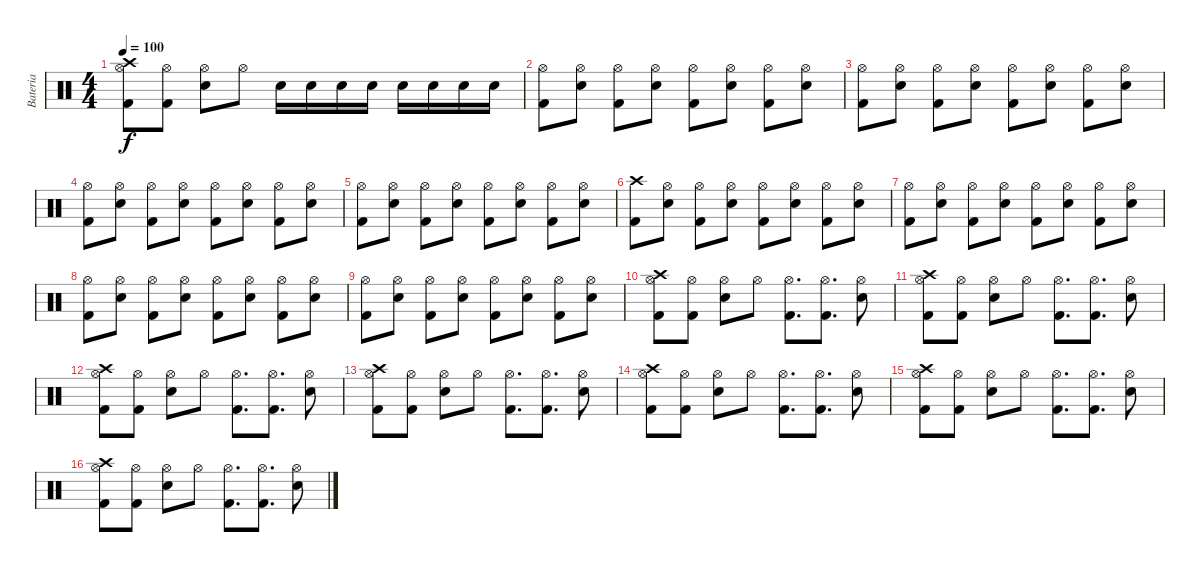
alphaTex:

\track ("Bateria" "Bateria") {instrument percussion}
\staff {score}
\articulation defaults
\ts (4 4)
\tempo 100
\clef neutral
\ks c
("Hi-Hat (open)" "Kick (hit) 2" "Crash high (hit)").8{dy f} ("Hi-Hat (open)" "Kick (hit) 2").8 ("Hi-Hat (open)" "Snare (hit) 2").8 "Hi-Hat (open)".8 "Snare (hit) 2".16 "Snare (hit) 2".16 "Snare (hit) 2".16 "Snare (hit) 2".16 "Snare (hit) 2".16 "Snare (hit) 2".16 "Snare (hit) 2".16 "Snare (hit) 2".16 |
("Hi-Hat (open)" "Kick (hit) 2").8 ("Hi-Hat (open)" "Electric Snare (hit)").8 ("Hi-Hat (open)" "Kick (hit) 2").8 ("Hi-Hat (open)" "Electric Snare (hit)").8 ("Hi-Hat (open)" "Kick (hit) 2").8 ("Hi-Hat (open)" "Electric Snare (hit)").8 ("Hi-Hat (open)" "Kick (hit) 2").8 ("Hi-Hat (open)" "Electric Snare (hit)").8 |
("Hi-Hat (open)" "Kick (hit) 2").8 ("Hi-Hat (open)" "Electric Snare (hit)").8 ("Hi-Hat (open)" "Kick (hit) 2").8 ("Hi-Hat (open)" "Electric Snare (hit)").8 ("Hi-Hat (open)" "Kick (hit) 2").8 ("Hi-Hat (open)" "Electric Snare (hit)").8 ("Hi-Hat (open)" "Kick (hit) 2").8 ("Hi-Hat (open)" "Electric Snare (hit)").8 |
("Hi-Hat (open)" "Kick (hit) 2").8 ("Hi-Hat (open)" "Electric Snare (hit)").8 ("Hi-Hat (open)" "Kick (hit) 2").8 ("Hi-Hat (open)" "Electric Snare (hit)").8 ("Hi-Hat (open)" "Kick (hit) 2").8 ("Hi-Hat (open)" "Electric Snare (hit)").8 ("Hi-Hat (open)" "Kick (hit) 2").8 ("Hi-Hat (open)" "Electric Snare (hit)").8 |
("Hi-Hat (open)" "Kick (hit) 2").8 ("Hi-Hat (open)" "Electric Snare (hit)").8 ("Hi-Hat (open)" "Kick (hit) 2").8 ("Hi-Hat (open)" "Electric Snare (hit)").8 ("Hi-Hat (open)" "Kick (hit) 2").8 ("Hi-Hat (open)" "Electric Snare (hit)").8 ("Hi-Hat (open)" "Kick (hit) 2").8 ("Hi-Hat (open)" "Electric Snare (hit)").8 |
("Crash high (hit)" "Kick (hit) 2").8 ("Hi-Hat (open)" "Electric Snare (hit)").8 ("Hi-Hat (open)" "Kick (hit) 2").8 ("Hi-Hat (open)" "Electric Snare (hit)").8 ("Hi-Hat (open)" "Kick (hit) 2").8 ("Hi-Hat (open)" "Electric Snare (hit)").8 ("Hi-Hat (open)" "Kick (hit) 2").8 ("Hi-Hat (open)" "Electric Snare (hit)").8 |
("Hi-Hat (open)" "Kick (hit) 2").8 ("Hi-Hat (open)" "Electric Snare (hit)").8 ("Hi-Hat (open)" "Kick (hit) 2").8 ("Hi-Hat (open)" "Electric Snare (hit)").8 ("Hi-Hat (open)" "Kick (hit) 2").8 ("Hi-Hat (open)" "Electric Snare (hit)").8 ("Hi-Hat (open)" "Kick (hit) 2").8 ("Hi-Hat (open)" "Electric Snare (hit)").8 |
("Hi-Hat (open)" "Kick (hit) 2").8 ("Hi-Hat (open)" "Electric Snare (hit)").8 ("Hi-Hat (open)" "Kick (hit) 2").8 ("Hi-Hat (open)" "Electric Snare (hit)").8 ("Hi-Hat (open)" "Kick (hit) 2").8 ("Hi-Hat (open)" "Electric Snare (hit)").8 ("Hi-Hat (open)" "Kick (hit) 2").8 ("Hi-Hat (open)" "Electric Snare (hit)").8 |
("Hi-Hat (open)" "Kick (hit) 2").8 ("Hi-Hat (open)" "Electric Snare (hit)").8 ("Hi-Hat (open)" "Kick (hit) 2").8 ("Hi-Hat (open)" "Electric Snare (hit)").8 ("Hi-Hat (open)" "Kick (hit) 2").8 ("Hi-Hat (open)" "Electric Snare (hit)").8 ("Hi-Hat (open)" "Kick (hit) 2").8 ("Hi-Hat (open)" "Electric Snare (hit)").8 |
("Hi-Hat (open)" "Kick (hit) 2" "Crash high (hit)").8 ("Hi-Hat (open)" "Kick (hit) 2").8 ("Hi-Hat (open)" "Snare (hit) 2").8 "Hi-Hat (open)".8 ("Hi-Hat (open)" "Kick (hit) 2").8{d} ("Hi-Hat (open)" "Kick (hit) 2").8{d} ("Hi-Hat (open)" "Snare (hit) 2").8 |
("Hi-Hat (open)" "Kick (hit) 2" "Crash high (hit)").8 ("Hi-Hat (open)" "Kick (hit) 2").8 ("Hi-Hat (open)" "Snare (hit) 2").8 "Hi-Hat (open)".8 ("Hi-Hat (open)" "Kick (hit) 2").8{d} ("Hi-Hat (open)" "Kick (hit) 2").8{d} ("Hi-Hat (open)" "Snare (hit) 2").8 |
("Hi-Hat (open)" "Kick (hit) 2" "Crash high (hit)").8 ("Hi-Hat (open)" "Kick (hit) 2").8 ("Hi-Hat (open)" "Snare (hit) 2").8 "Hi-Hat (open)".8 ("Hi-Hat (open)" "Kick (hit) 2").8{d} ("Hi-Hat (open)" "Kick (hit) 2").8{d} ("Hi-Hat (open)" "Snare (hit) 2").8 |
("Hi-Hat (open)" "Kick (hit) 2" "Crash high (hit)").8 ("Hi-Hat (open)" "Kick (hit) 2").8 ("Hi-Hat (open)" "Snare (hit) 2").8 "Hi-Hat (open)".8 ("Hi-Hat (open)" "Kick (hit) 2").8{d} ("Hi-Hat (open)" "Kick (hit) 2").8{d} ("Hi-Hat (open)" "Snare (hit) 2").8 |
("Hi-Hat (open)" "Kick (hit) 2" "Crash high (hit)").8 ("Hi-Hat (open)" "Kick (hit) 2").8 ("Hi-Hat (open)" "Snare (hit) 2").8 "Hi-Hat (open)".8 ("Hi-Hat (open)" "Kick (hit) 2").8{d} ("Hi-Hat (open)" "Kick (hit) 2").8{d} ("Hi-Hat (open)" "Snare (hit) 2").8 |
("Hi-Hat (open)" "Kick (hit) 2" "Crash high (hit)").8 ("Hi-Hat (open)" "Kick (hit) 2").8 ("Hi-Hat (open)" "Snare (hit) 2").8 "Hi-Hat (open)".8 ("Hi-Hat (open)" "Kick (hit) 2").8{d} ("Hi-Hat (open)" "Kick (hit) 2").8{d} ("Hi-Hat (open)" "Snare (hit) 2").8 |
("Hi-Hat (open)" "Kick (hit) 2" "Crash high (hit)").8 ("Hi-Hat (open)" "Kick (hit) 2").8 ("Hi-Hat (open)" "Snare (hit) 2").8 "Hi-Hat (open)".8 ("Hi-Hat (open)" "Kick (hit) 2").8{d} ("Hi-Hat (open)" "Kick (hit) 2").8{d} ("Hi-Hat (open)" "Snare (hit) 2").8
